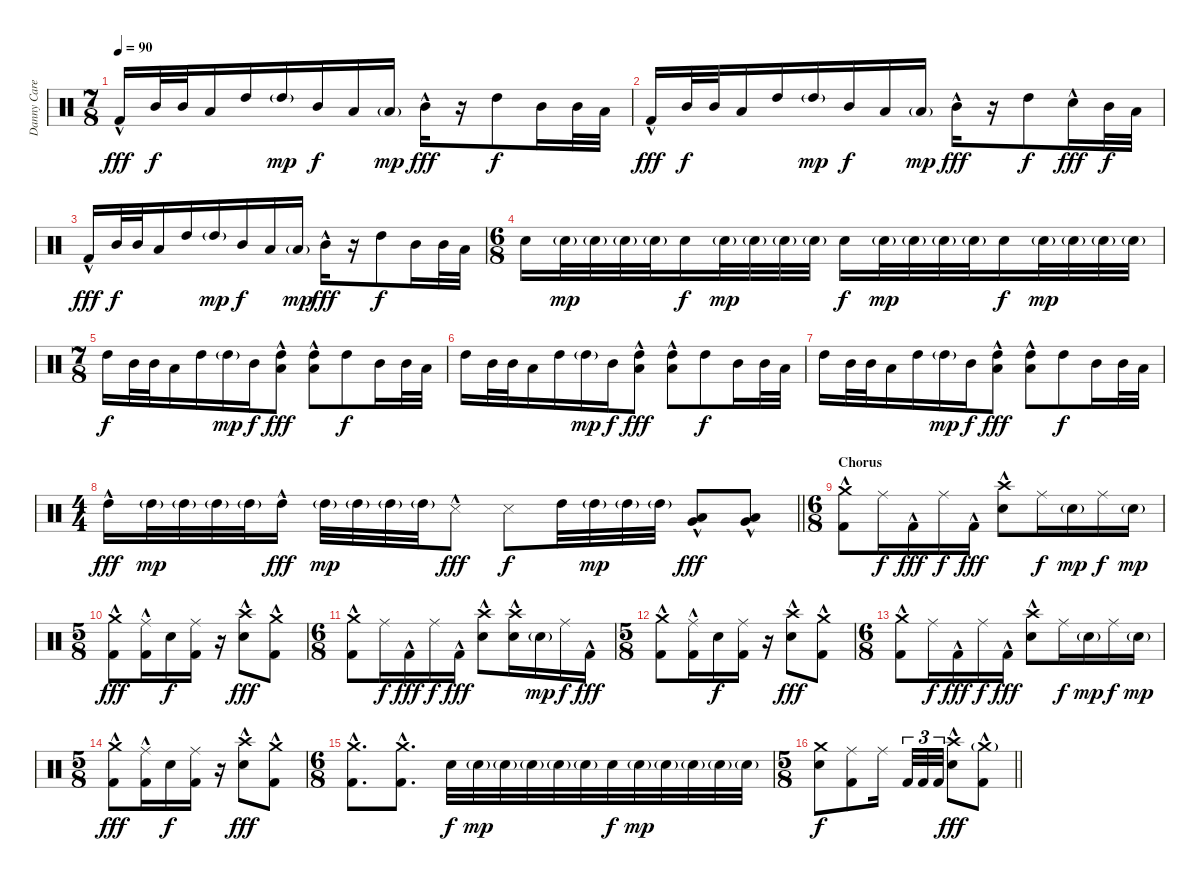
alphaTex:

\track ("Danny Carey" "Danny Care") {instrument percussion}
\staff {score}
\articulation defaults
\ts (7 8)
\tempo 90
\clef neutral
\ks c "Kick (hit) 2"{hac}.16{dy fff} "Mid Tom (hit)".32{dy f} "Mid Tom (hit)".32 "Low Tom (hit)".16 "High Tom (hit)".16 "High Tom (hit)"{g}.16{dy mp} "Mid Tom (hit)".16{dy f} "Low Tom (hit)".16 "Low Tom (hit)"{g}.16{dy mp} "Mid Tom (hit)"{hac}.16{dy fff}
r.16 "High Tom (hit)".8{dy f} "Mid Tom (hit)".16 "Mid Tom (hit)".32 "Low Tom (hit)".32 |
"Kick (hit) 2"{hac}.16{dy fff} "Mid Tom (hit)".32{dy f} "Mid Tom (hit)".32 "Low Tom (hit)".16 "High Tom (hit)".16 "High Tom (hit)"{g}.16{dy mp} "Mid Tom (hit)".16{dy f} "Low Tom (hit)".16 "Low Tom (hit)"{g}.16{dy mp} "Mid Tom (hit)"{hac}.16{dy fff} r.16 "High Tom (hit)".8{dy f} "Electric Snare (hit)"{hac}.16{dy fff} "Mid Tom (hit)".32{dy f} "Low Tom (hit)".32 |
"Kick (hit) 2"{hac}.16{dy fff} "Mid Tom (hit)".32{dy f} "Mid Tom (hit)".32 "Low Tom (hit)".16 "High Tom (hit)".16 "High Tom (hit)"{g}.16{dy mp} "Mid Tom (hit)".16{dy f} "Low Tom (hit)".16 "Low Tom (hit)"{g}.16{dy mp} "Mid Tom (hit)"{hac}.16{dy fff} r.16 "High Tom (hit)".8{dy f} "Mid Tom (hit)".16 "Mid Tom (hit)".32 "Low Tom (hit)".32 |
\ts (6 8)
"Electric Snare (hit)".16 "Electric Snare (hit)"{g}.32{dy mp} "Electric Snare (hit)"{g}.32 "Electric Snare (hit)"{g}.32 "Electric Snare (hit)"{g}.32 "Electric Snare (hit)".16{dy f} "Electric Snare (hit)"{g}.32{dy mp} "Electric Snare (hit)"{g}.32 "Electric Snare (hit)"{g}.32 "Electric Snare (hit)"{g}.32 "Electric Snare (hit)".16{dy f} "Electric Snare (hit)"{g}.32{dy mp} "Electric Snare (hit)"{g}.32 "Electric Snare (hit)"{g}.32 "Electric Snare (hit)"{g}.32 "Electric Snare (hit)".16{dy f} "Electric Snare (hit)"{g}.32{dy mp} "Electric Snare (hit)"{g}.32 "Electric Snare (hit)"{g}.32 "Electric Snare (hit)"{g}.32 |
\ts (7 8)
"High Tom (hit)".16{dy f} "Mid Tom (hit)".32 "Mid Tom (hit)".32 "Low Tom (hit)".16 "High Tom (hit)".16 "High Tom (hit)"{g}.16{dy mp} "Mid Tom (hit)".16{dy f} ("High Tom (hit)"{hac} "Low Tom (hit)").8{dy fff} ("High Tom (hit)"{hac} "Low Tom (hit)").8 "High Tom (hit)".8{dy f} "Mid Tom (hit)".16 "Mid Tom (hit)".32 "Low Tom (hit)".32 |
"High Tom (hit)".16 "Mid Tom (hit)".32 "Mid Tom (hit)".32 "Low Tom (hit)".16 "High Tom (hit)".16 "High Tom (hit)"{g}.16{dy mp} "Mid Tom (hit)".16{dy f} ("High Tom (hit)"{hac} "Low Tom (hit)").8{dy fff} ("High Tom (hit)"{hac} "Low Tom (hit)").8 "High Tom (hit)".8{dy f} "Mid Tom (hit)".16 "Mid Tom (hit)".32 "Low Tom (hit)".32 |
"High Tom (hit)".16 "Mid Tom (hit)".32 "Mid Tom (hit)".32 "Low Tom (hit)".16 "High Tom (hit)".16 "High Tom (hit)"{g}.16{dy mp} "Mid Tom (hit)".16{dy f} ("High Tom (hit)"{hac} "Low Tom (hit)").8{dy fff} ("High Tom (hit)"{hac} "Low Tom (hit)").8 "High Tom (hit)".8{dy f} "Mid Tom (hit)".16 "Mid Tom (hit)".32 "Low Tom (hit)".32 |
\ts (4 4)
\barLineRight lightlight "High Tom (hit)"{hac}.16{dy fff} "High Tom (hit)"{g}.32{dy mp} "High Tom (hit)"{g}.32 "High Tom (hit)"{g}.32 "High Tom (hit)"{g}.32 "High Tom (hit)"{hac}.16{dy fff} "High Tom (hit)"{g}.32{dy mp} "High Tom (hit)"{g}.32 "High Tom (hit)"{g}.32 "High Tom (hit)"{g}.32 "Snare (side stick) 3"{hac}.8{dy fff} "Snare (side stick) 3".8{dy f} "High Tom (hit)".32 "High Tom (hit)"{g}.32{dy mp} "High Tom (hit)"{g}.32 "High Tom (hit)"{g}.32
("Low Tom (hit)"{hac} "Very Low Tom (hit)").8{dy fff} ("Low Tom (hit)"{hac} "Very Low Tom (hit)").8 |
\ts (6 8)
\section ("" "Chorus")
("Crash medium (hit)" "Kick (hit) 2"{hac}).8 "Ride (middle)".16{dy f} "Kick (hit) 2"{hac}.16{dy fff} "Ride (middle)".16{dy f} "Kick (hit) 2"{hac}.16{dy fff} ("Crash high (hit)" "Electric Snare (hit)"{hac}).8 "Ride (middle)".16{dy f} "Electric Snare (hit)"{g}.16{dy mp} "Ride (middle)".16{dy f} "Electric Snare (hit)"{g}.16{dy mp} |
\ts (5 8)
("Crash medium (hit)" "Kick (hit) 2"{hac}).8{dy fff} ("Ride (middle)" "Kick (hit) 2"{hac}).16 "Electric Snare (hit)".16{dy f} ("Ride (middle)" "Kick (hit) 2").16 r.16 ("Crash high (hit)" "Electric Snare (hit)"{hac}).8{dy fff} ("Crash medium (hit)" "Kick (hit) 2"{hac}).8 |
\ts (6 8)
("Crash medium (hit)" "Kick (hit) 2"{hac}).8 "Ride (middle)".16{dy f} "Kick (hit) 2"{hac}.16{dy fff} "Ride (middle)".16{dy f} "Kick (hit) 2"{hac}.16{dy fff} ("Crash high (hit)" "Electric Snare (hit)"{hac}).8 ("Crash high (hit)" "Electric Snare (hit)"{hac}).16 "Electric Snare (hit)"{g}.16{dy mp} "Ride (middle)".16{dy f} "Kick (hit) 2"{hac}.16{dy fff} |
\ts (5 8)
("Crash medium (hit)" "Kick (hit) 2"{hac}).8 ("Ride (middle)" "Kick (hit) 2"{hac}).16 "Electric Snare (hit)".16{dy f} ("Ride (middle)" "Kick (hit) 2").16 r.16 ("Crash high (hit)" "Electric Snare (hit)"{hac}).8{dy fff} ("Crash medium (hit)" "Kick (hit) 2"{hac}).8 |
\ts (6 8)
("Crash medium (hit)" "Kick (hit) 2"{hac}).8 "Ride (middle)".16{dy f} "Kick (hit) 2"{hac}.16{dy fff} "Ride (middle)".16{dy f} "Kick (hit) 2"{hac}.16{dy fff} ("Crash high (hit)" "Electric Snare (hit)"{hac}).8 "Ride (middle)".16{dy f} "Electric Snare (hit)"{g}.16{dy mp} "Ride (middle)".16{dy f} "Electric Snare (hit)"{g}.16{dy mp} |
\ts (5 8)
("Crash medium (hit)" "Kick (hit) 2"{hac}).8{dy fff} ("Ride (middle)" "Kick (hit) 2"{hac}).16 "Electric Snare (hit)".16{dy f} ("Ride (middle)" "Kick (hit) 2").16 r.16 ("Crash high (hit)" "Electric Snare (hit)"{hac}).8{dy fff} ("Crash medium (hit)" "Kick (hit) 2"{hac}).8 |
\ts (6 8)
("Crash medium (hit)" "Kick (hit) 2"{hac}).8{d} ("Crash medium (hit)" "Kick (hit) 2"{hac}).8{d} "Electric Snare (hit)".32{dy f} "Electric Snare (hit)"{g}.32{dy mp} "Electric Snare (hit)"{g}.32 "Electric Snare (hit)"{g}.32 "Electric Snare (hit)"{g}.32 "Electric Snare (hit)"{g}.32 "Electric Snare (hit)".32{dy f} "Electric Snare (hit)"{g}.32{dy mp} "Electric Snare (hit)"{g}.32 "Electric Snare (hit)"{g}.32 "Electric Snare (hit)"{g}.32 "Electric Snare (hit)"{g}.32 |
\ts (5 8)
\barLineRight lightlight
("Crash medium (hit)" "Electric Snare (hit)").8{dy f} ("Ride (middle)" "Kick (hit) 2").8 "Ride (middle)".16{beam splitsecondary} "Kick (hit) 2".32{tu (3 2)} "Kick (hit) 2".32{tu (3 2)} "Kick (hit) 2".32{tu (3 2)} ("Crash high (hit)" "Electric Snare (hit)"{hac}).8{dy fff} ("Crash medium (hit)"{g} "Kick (hit) 2"{hac}).8
